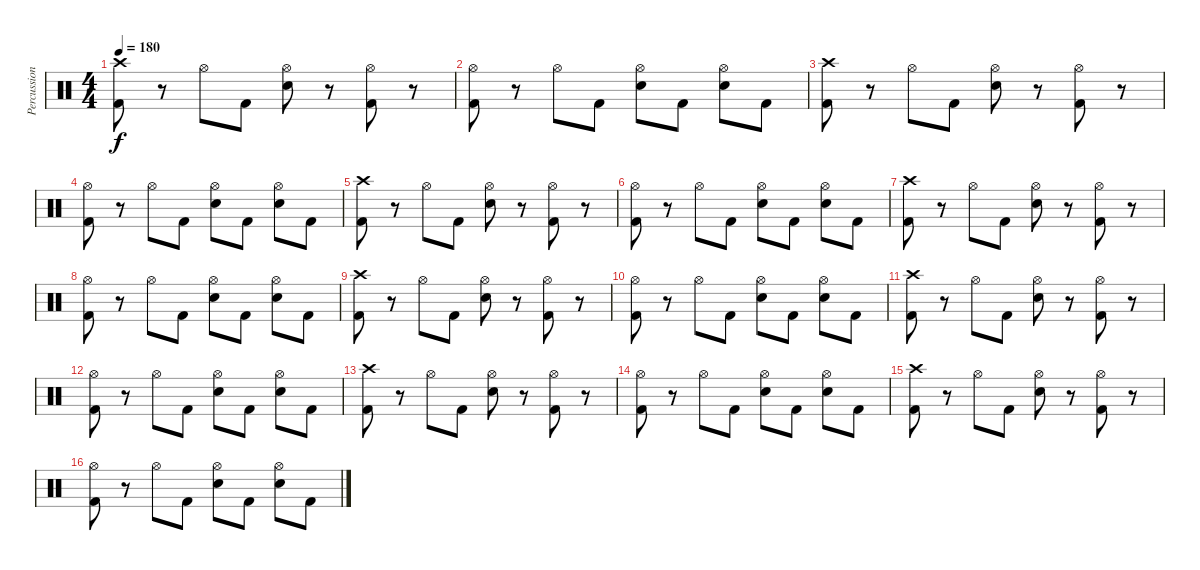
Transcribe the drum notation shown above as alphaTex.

\track ("Percussion" "Percussion") {instrument percussion}
\staff {score}
\articulation defaults
\ts (4 4)
\tempo 180
\clef neutral
\ks c
("Crash high (hit)" "Kick (hit) 2").8{dy f} r.8 "Hi-Hat (open)".8 "Kick (hit) 2".8 ("Hi-Hat (open)" "Electric Snare (hit)").8 r.8 ("Hi-Hat (open)" "Kick (hit) 2").8 r.8 |
("Hi-Hat (open)" "Kick (hit) 2").8 r.8 "Hi-Hat (open)".8 "Kick (hit) 2".8 ("Hi-Hat (open)" "Electric Snare (hit)").8 "Kick (hit) 2".8 ("Hi-Hat (open)" "Electric Snare (hit)").8 "Kick (hit) 2".8 |
("Crash high (hit)" "Kick (hit) 2").8 r.8 "Hi-Hat (open)".8 "Kick (hit) 2".8 ("Hi-Hat (open)" "Electric Snare (hit)").8 r.8 ("Hi-Hat (open)" "Kick (hit) 2").8 r.8 |
("Hi-Hat (open)" "Kick (hit) 2").8 r.8 "Hi-Hat (open)".8 "Kick (hit) 2".8 ("Hi-Hat (open)" "Electric Snare (hit)").8 "Kick (hit) 2".8 ("Hi-Hat (open)" "Electric Snare (hit)").8 "Kick (hit) 2".8 |
("Crash high (hit)" "Kick (hit) 2").8 r.8 "Hi-Hat (open)".8 "Kick (hit) 2".8 ("Hi-Hat (open)" "Electric Snare (hit)").8 r.8 ("Hi-Hat (open)" "Kick (hit) 2").8 r.8 |
("Hi-Hat (open)" "Kick (hit) 2").8 r.8 "Hi-Hat (open)".8 "Kick (hit) 2".8 ("Hi-Hat (open)" "Electric Snare (hit)").8 "Kick (hit) 2".8 ("Hi-Hat (open)" "Electric Snare (hit)").8 "Kick (hit) 2".8 |
("Crash high (hit)" "Kick (hit) 2").8 r.8 "Hi-Hat (open)".8 "Kick (hit) 2".8 ("Hi-Hat (open)" "Electric Snare (hit)").8 r.8 ("Hi-Hat (open)" "Kick (hit) 2").8 r.8 |
("Hi-Hat (open)" "Kick (hit) 2").8 r.8 "Hi-Hat (open)".8 "Kick (hit) 2".8 ("Hi-Hat (open)" "Electric Snare (hit)").8 "Kick (hit) 2".8 ("Hi-Hat (open)" "Electric Snare (hit)").8 "Kick (hit) 2".8 |
("Crash high (hit)" "Kick (hit) 2").8 r.8 "Hi-Hat (open)".8 "Kick (hit) 2".8 ("Hi-Hat (open)" "Electric Snare (hit)").8 r.8 ("Hi-Hat (open)" "Kick (hit) 2").8 r.8 |
("Hi-Hat (open)" "Kick (hit) 2").8 r.8 "Hi-Hat (open)".8 "Kick (hit) 2".8 ("Hi-Hat (open)" "Electric Snare (hit)").8 "Kick (hit) 2".8 ("Hi-Hat (open)" "Electric Snare (hit)").8 "Kick (hit) 2".8 |
("Crash high (hit)" "Kick (hit) 2").8 r.8 "Hi-Hat (open)".8 "Kick (hit) 2".8 ("Hi-Hat (open)" "Electric Snare (hit)").8 r.8 ("Hi-Hat (open)" "Kick (hit) 2").8 r.8 |
("Hi-Hat (open)" "Kick (hit) 2").8 r.8 "Hi-Hat (open)".8 "Kick (hit) 2".8 ("Hi-Hat (open)" "Electric Snare (hit)").8 "Kick (hit) 2".8 ("Hi-Hat (open)" "Electric Snare (hit)").8 "Kick (hit) 2".8 |
("Crash high (hit)" "Kick (hit) 2").8 r.8 "Hi-Hat (open)".8 "Kick (hit) 2".8 ("Hi-Hat (open)" "Electric Snare (hit)").8 r.8 ("Hi-Hat (open)" "Kick (hit) 2").8 r.8 |
("Hi-Hat (open)" "Kick (hit) 2").8 r.8 "Hi-Hat (open)".8 "Kick (hit) 2".8 ("Hi-Hat (open)" "Electric Snare (hit)").8 "Kick (hit) 2".8 ("Hi-Hat (open)" "Electric Snare (hit)").8 "Kick (hit) 2".8 |
("Crash high (hit)" "Kick (hit) 2").8 r.8 "Hi-Hat (open)".8 "Kick (hit) 2".8 ("Hi-Hat (open)" "Electric Snare (hit)").8 r.8 ("Hi-Hat (open)" "Kick (hit) 2").8 r.8 |
("Hi-Hat (open)" "Kick (hit) 2").8 r.8 "Hi-Hat (open)".8 "Kick (hit) 2".8 ("Hi-Hat (open)" "Electric Snare (hit)").8 "Kick (hit) 2".8 ("Hi-Hat (open)" "Electric Snare (hit)").8 "Kick (hit) 2".8
